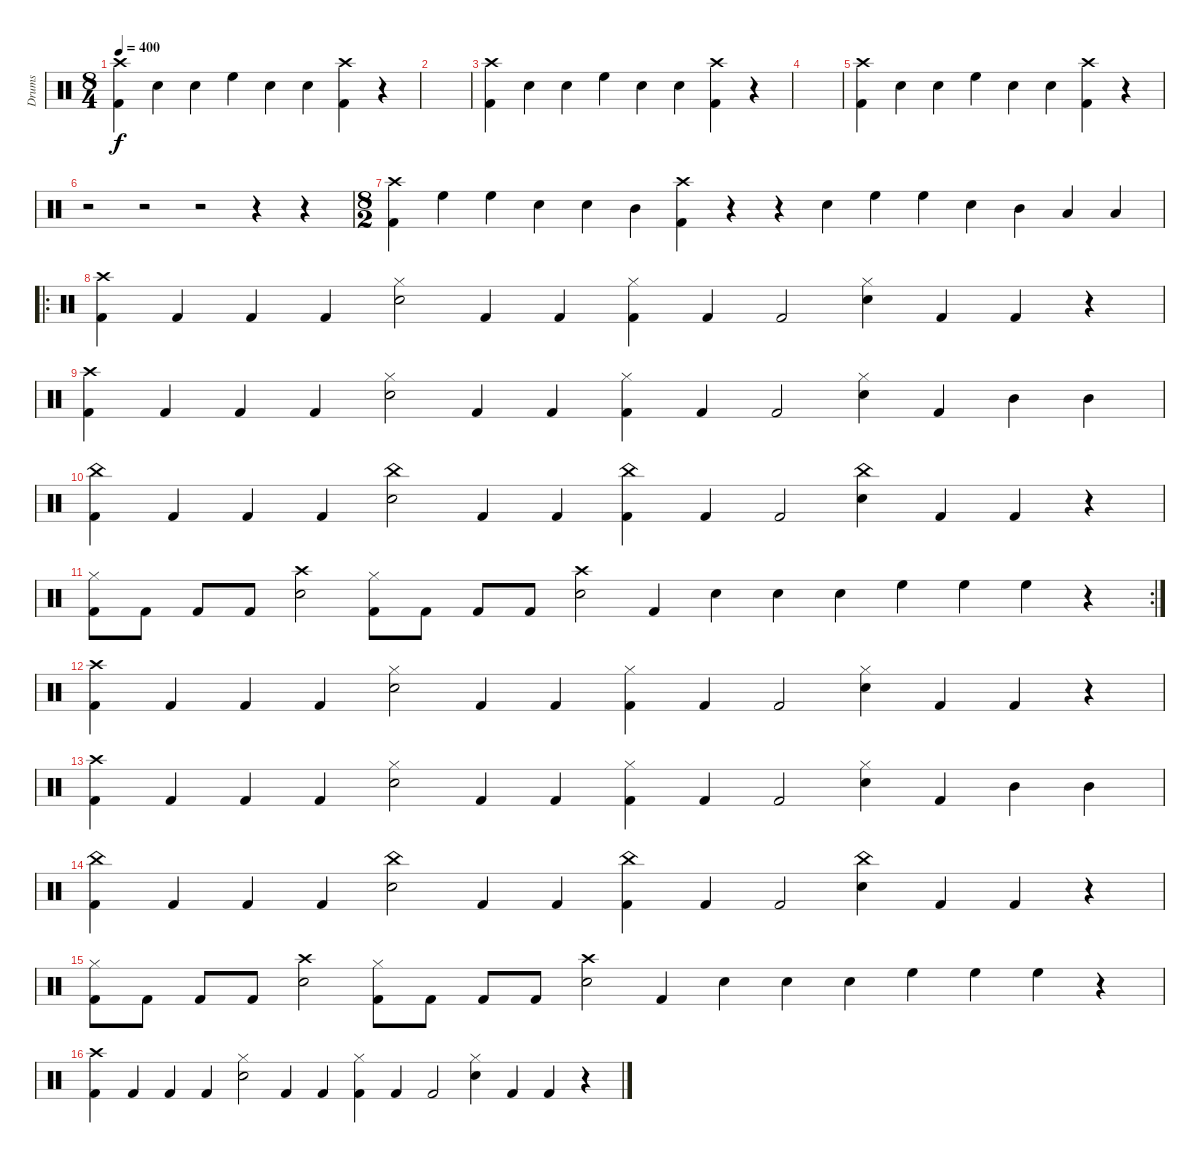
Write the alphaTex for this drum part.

\track ("Drums" "Drums") {instrument percussion}
\staff {score}
\articulation defaults
\ts (8 4)
\tempo 400
\clef neutral
\ks c
("Crash high (hit)" "Kick (hit) 2").4{dy f} "Snare (hit) 2".4 "Snare (hit) 2".4 "High Floor Tom (hit)".4 "Snare (hit) 2".4 "Snare (hit) 2".4 ("Crash high (hit)" "Kick (hit) 2").4 r.4 |
|
("Crash high (hit)" "Kick (hit) 2").4 "Snare (hit) 2".4 "Snare (hit) 2".4 "High Floor Tom (hit)".4 "Snare (hit) 2".4 "Snare (hit) 2".4 ("Crash high (hit)" "Kick (hit) 2").4 r.4 |
|
("Crash high (hit)" "Kick (hit) 2").4 "Snare (hit) 2".4 "Snare (hit) 2".4 "High Floor Tom (hit)".4 "Snare (hit) 2".4 "Snare (hit) 2".4 ("Crash high (hit)" "Kick (hit) 2").4 r.4 |
r.2 r.2 r.2 r.4 r.4 |
\ts (8 2)
("Crash high (hit)" "Kick (hit) 2").4 "High Floor Tom (hit)".4 "High Floor Tom (hit)".4 "Snare (hit) 2".4 "Snare (hit) 2".4 "Mid Tom (hit)".4 ("Crash high (hit)" "Kick (hit) 2").4 r.4 r.4 "Snare (hit) 2".4 "High Floor Tom (hit)".4 "High Floor Tom (hit)".4 "Snare (hit) 2".4 "Mid Tom (hit)".4 "Low Tom (hit)".4 "Low Tom (hit)".4 |
\ro
("Crash high (hit)" "Kick (hit) 2").4 "Kick (hit) 2".4 "Kick (hit) 2".4 "Kick (hit) 2".4 ("Hi-Hat (closed)" "Snare (hit) 2").2 "Kick (hit) 2".4 "Kick (hit) 2".4 ("Hi-Hat (closed)" "Kick (hit) 2").4 "Kick (hit) 2".4 "Kick (hit) 2".2 ("Hi-Hat (closed)" "Snare (hit) 2").4 "Kick (hit) 2".4 "Kick (hit) 2".4 r.4 |
("Crash high (hit)" "Kick (hit) 2").4 "Kick (hit) 2".4 "Kick (hit) 2".4 "Kick (hit) 2".4 ("Hi-Hat (closed)" "Snare (hit) 2").2 "Kick (hit) 2".4 "Kick (hit) 2".4 ("Hi-Hat (closed)" "Kick (hit) 2").4 "Kick (hit) 2".4 "Kick (hit) 2".2 ("Hi-Hat (closed)" "Snare (hit) 2").4 "Kick (hit) 2".4 "Mid Tom (hit)".4 "Mid Tom (hit)".4 |
("China (hit)" "Kick (hit) 2").4 "Kick (hit) 2".4 "Kick (hit) 2".4 "Kick (hit) 2".4 ("China (hit)" "Snare (hit) 2").2 "Kick (hit) 2".4 "Kick (hit) 2".4 ("China (hit)" "Kick (hit) 2").4 "Kick (hit) 2".4 "Kick (hit) 2".2 ("China (hit)" "Snare (hit) 2").4 "Kick (hit) 2".4 "Kick (hit) 2".4 r.4 |
\rc 2
("Hi-Hat (closed)" "Kick (hit) 2").8 "Kick (hit) 2".8 "Kick (hit) 2".8 "Kick (hit) 2".8 ("Crash high (hit)" "Snare (hit) 2").2 ("Hi-Hat (closed)" "Kick (hit) 2").8 "Kick (hit) 2".8 "Kick (hit) 2".8 "Kick (hit) 2".8 ("Crash high (hit)" "Snare (hit) 2").2 "Kick (hit) 2".4 "Snare (hit) 2".4 "Snare (hit) 2".4 "Snare (hit) 2".4 "High Floor Tom (hit)".4 "High Floor Tom (hit)".4 "High Floor Tom (hit)".4 r.4 |
("Crash high (hit)" "Kick (hit) 2").4 "Kick (hit) 2".4 "Kick (hit) 2".4 "Kick (hit) 2".4 ("Hi-Hat (closed)" "Snare (hit) 2").2 "Kick (hit) 2".4 "Kick (hit) 2".4 ("Hi-Hat (closed)" "Kick (hit) 2").4 "Kick (hit) 2".4 "Kick (hit) 2".2 ("Hi-Hat (closed)" "Snare (hit) 2").4 "Kick (hit) 2".4 "Kick (hit) 2".4 r.4 |
("Crash high (hit)" "Kick (hit) 2").4 "Kick (hit) 2".4 "Kick (hit) 2".4 "Kick (hit) 2".4 ("Hi-Hat (closed)" "Snare (hit) 2").2 "Kick (hit) 2".4 "Kick (hit) 2".4 ("Hi-Hat (closed)" "Kick (hit) 2").4 "Kick (hit) 2".4 "Kick (hit) 2".2 ("Hi-Hat (closed)" "Snare (hit) 2").4 "Kick (hit) 2".4 "Mid Tom (hit)".4 "Mid Tom (hit)".4 |
("China (hit)" "Kick (hit) 2").4 "Kick (hit) 2".4 "Kick (hit) 2".4 "Kick (hit) 2".4 ("China (hit)" "Snare (hit) 2").2 "Kick (hit) 2".4 "Kick (hit) 2".4 ("China (hit)" "Kick (hit) 2").4 "Kick (hit) 2".4 "Kick (hit) 2".2 ("China (hit)" "Snare (hit) 2").4 "Kick (hit) 2".4 "Kick (hit) 2".4 r.4 |
("Hi-Hat (closed)" "Kick (hit) 2").8 "Kick (hit) 2".8 "Kick (hit) 2".8 "Kick (hit) 2".8 ("Crash high (hit)" "Snare (hit) 2").2 ("Hi-Hat (closed)" "Kick (hit) 2").8 "Kick (hit) 2".8 "Kick (hit) 2".8 "Kick (hit) 2".8 ("Crash high (hit)" "Snare (hit) 2").2 "Kick (hit) 2".4 "Snare (hit) 2".4 "Snare (hit) 2".4 "Snare (hit) 2".4 "High Floor Tom (hit)".4 "High Floor Tom (hit)".4 "High Floor Tom (hit)".4 r.4 |
("Crash high (hit)" "Kick (hit) 2").4 "Kick (hit) 2".4 "Kick (hit) 2".4 "Kick (hit) 2".4 ("Hi-Hat (closed)" "Snare (hit) 2").2 "Kick (hit) 2".4 "Kick (hit) 2".4 ("Hi-Hat (closed)" "Kick (hit) 2").4 "Kick (hit) 2".4 "Kick (hit) 2".2 ("Hi-Hat (closed)" "Snare (hit) 2").4 "Kick (hit) 2".4 "Kick (hit) 2".4 r.4
